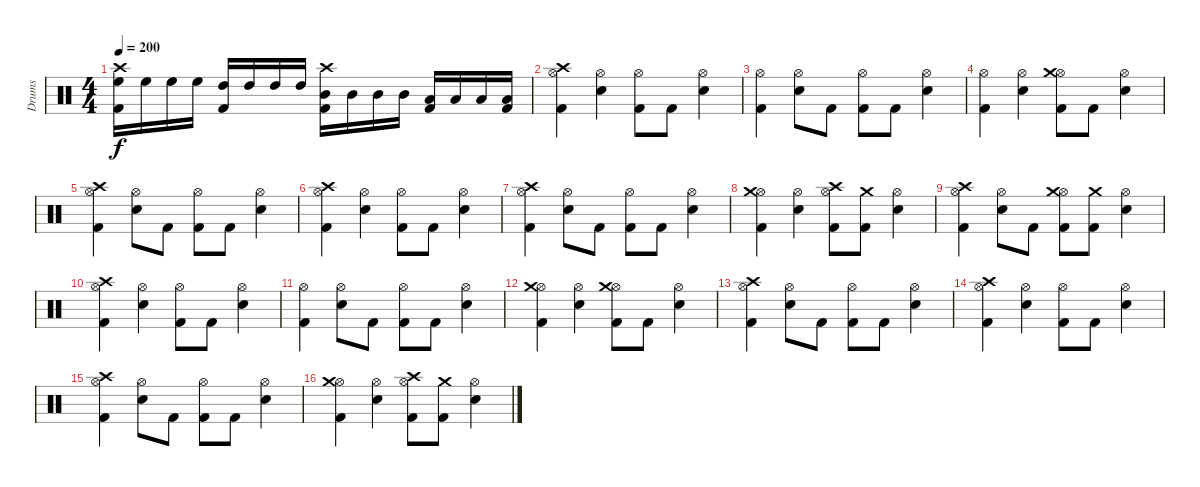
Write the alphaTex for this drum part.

\track ("Drums" "Drums") {instrument percussion}
\staff {score}
\articulation defaults
\ts (4 4)
\tempo 200
\clef neutral
\ks c
("High Floor Tom (hit)" "Crash high (hit)" "Kick (hit) 2").16{dy f} "High Floor Tom (hit)".16 "High Floor Tom (hit)".16 "High Floor Tom (hit)".16 ("High Tom (hit)" "Kick (hit) 2").16 "High Tom (hit)".16 "High Tom (hit)".16 "High Tom (hit)".16 ("Crash high (hit)" "Mid Tom (hit)" "Kick (hit) 2").16 "Mid Tom (hit)".16 "Mid Tom (hit)".16 "Mid Tom (hit)".16 ("Low Tom (hit)" "Kick (hit) 2").16 "Low Tom (hit)".16 "Low Tom (hit)".16 ("Low Tom (hit)" "Kick (hit) 2").16 |
("Hi-Hat (open)" "Crash high (hit)" "Kick (hit) 2").4 ("Hi-Hat (open)" "Snare (hit) 2").4 ("Hi-Hat (open)" "Kick (hit) 2").8 "Kick (hit) 2".8 ("Hi-Hat (open)" "Snare (hit) 2").4 |
("Hi-Hat (open)" "Kick (hit) 2").4 ("Hi-Hat (open)" "Snare (hit) 2").8 "Kick (hit) 2".8 ("Hi-Hat (open)" "Kick (hit) 2").8 "Kick (hit) 2".8 ("Hi-Hat (open)" "Snare (hit) 2").4 |
("Hi-Hat (open)" "Kick (hit) 2").4 ("Hi-Hat (open)" "Snare (hit) 2").4 ("Hi-Hat (open)" "Crash medium (hit)" "Kick (hit) 2").8 "Kick (hit) 2".8 ("Hi-Hat (open)" "Snare (hit) 2").4 |
("Hi-Hat (open)" "Crash high (hit)" "Kick (hit) 2").4 ("Hi-Hat (open)" "Snare (hit) 2").8 "Kick (hit) 2".8 ("Hi-Hat (open)" "Kick (hit) 2").8 "Kick (hit) 2".8 ("Hi-Hat (open)" "Snare (hit) 2").4 |
("Hi-Hat (open)" "Crash high (hit)" "Kick (hit) 2").4 ("Hi-Hat (open)" "Snare (hit) 2").4 ("Hi-Hat (open)" "Kick (hit) 2").8 "Kick (hit) 2".8 ("Hi-Hat (open)" "Snare (hit) 2").4 |
("Hi-Hat (open)" "Crash high (hit)" "Kick (hit) 2").4 ("Hi-Hat (open)" "Snare (hit) 2").8 "Kick (hit) 2".8 ("Hi-Hat (open)" "Kick (hit) 2").8 "Kick (hit) 2".8 ("Hi-Hat (open)" "Snare (hit) 2").4 |
("Hi-Hat (open)" "Crash medium (hit)" "Kick (hit) 2").4 ("Hi-Hat (open)" "Snare (hit) 2").4 ("Hi-Hat (open)" "Crash high (hit)" "Kick (hit) 2").8 ("Crash medium (hit)" "Kick (hit) 2").8 ("Hi-Hat (open)" "Snare (hit) 2").4 |
("Hi-Hat (open)" "Crash high (hit)" "Kick (hit) 2").4 ("Hi-Hat (open)" "Snare (hit) 2").8 "Kick (hit) 2".8 ("Hi-Hat (open)" "Crash medium (hit)" "Kick (hit) 2").8 ("Crash medium (hit)" "Kick (hit) 2").8 ("Hi-Hat (open)" "Snare (hit) 2").4 |
("Hi-Hat (open)" "Crash high (hit)" "Kick (hit) 2").4 ("Hi-Hat (open)" "Snare (hit) 2").4 ("Hi-Hat (open)" "Kick (hit) 2").8 "Kick (hit) 2".8 ("Hi-Hat (open)" "Snare (hit) 2").4 |
("Hi-Hat (open)" "Kick (hit) 2").4 ("Hi-Hat (open)" "Snare (hit) 2").8 "Kick (hit) 2".8 ("Hi-Hat (open)" "Kick (hit) 2").8 "Kick (hit) 2".8 ("Hi-Hat (open)" "Snare (hit) 2").4 |
("Hi-Hat (open)" "Crash medium (hit)" "Kick (hit) 2").4 ("Hi-Hat (open)" "Snare (hit) 2").4 ("Hi-Hat (open)" "Crash medium (hit)" "Kick (hit) 2").8 "Kick (hit) 2".8 ("Hi-Hat (open)" "Snare (hit) 2").4 |
("Hi-Hat (open)" "Crash high (hit)" "Kick (hit) 2").4 ("Hi-Hat (open)" "Snare (hit) 2").8 "Kick (hit) 2".8 ("Hi-Hat (open)" "Kick (hit) 2").8 "Kick (hit) 2".8 ("Hi-Hat (open)" "Snare (hit) 2").4 |
("Hi-Hat (open)" "Crash high (hit)" "Kick (hit) 2").4 ("Hi-Hat (open)" "Snare (hit) 2").4 ("Hi-Hat (open)" "Kick (hit) 2").8 "Kick (hit) 2".8 ("Hi-Hat (open)" "Snare (hit) 2").4 |
("Hi-Hat (open)" "Crash high (hit)" "Kick (hit) 2").4 ("Hi-Hat (open)" "Snare (hit) 2").8 "Kick (hit) 2".8 ("Hi-Hat (open)" "Kick (hit) 2").8 "Kick (hit) 2".8 ("Hi-Hat (open)" "Snare (hit) 2").4 |
("Hi-Hat (open)" "Crash medium (hit)" "Kick (hit) 2").4 ("Hi-Hat (open)" "Snare (hit) 2").4 ("Hi-Hat (open)" "Crash high (hit)" "Kick (hit) 2").8 ("Crash medium (hit)" "Kick (hit) 2").8 ("Hi-Hat (open)" "Snare (hit) 2").4
